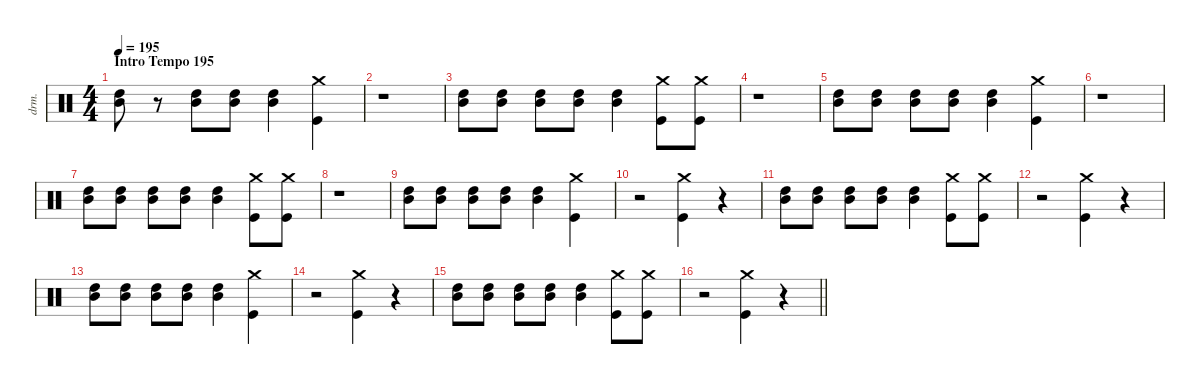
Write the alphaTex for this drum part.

\defaultSystemsLayout 4
\hideDynamics
\bracketExtendMode nobrackets
\otherSystemsTrackNameOrientation horizontal
\track ("Lars Ulrich (Drums)" "drm.") {instrument percussion}
\staff {score}
\articulation defaults
\ts (4 4)
\beaming (8 2 2 2 2)
\section ("" "Intro Tempo 195")
\tempo 195
\clef neutral
\ks c
("High Tom (hit)" "Mid Tom (hit)").8{dy f beam Down} r.8{beam Down} ("High Tom (hit)" "Mid Tom (hit)").8{beam Down} ("High Tom (hit)" "Mid Tom (hit)").8{beam Down} ("High Tom (hit)" "Mid Tom (hit)").4{beam Down} ("Crash medium (hit)" "Kick (hit)").4{beam Down} |
r.1{beam Down} |
("High Tom (hit)" "Mid Tom (hit)").8{beam Down} ("High Tom (hit)" "Mid Tom (hit)").8{beam Down} ("High Tom (hit)" "Mid Tom (hit)").8{beam Down} ("High Tom (hit)" "Mid Tom (hit)").8{beam Down} ("High Tom (hit)" "Mid Tom (hit)").4{beam Down} ("Crash medium (hit)" "Kick (hit)").8{beam Down} ("Kick (hit)" "Crash medium (hit)").8{beam Down} |
r.1{beam Down} |
("High Tom (hit)" "Mid Tom (hit)").8{beam Down} ("High Tom (hit)" "Mid Tom (hit)").8{beam Down} ("High Tom (hit)" "Mid Tom (hit)").8{beam Down} ("High Tom (hit)" "Mid Tom (hit)").8{beam Down} ("High Tom (hit)" "Mid Tom (hit)").4{beam Down} ("Crash medium (hit)" "Kick (hit)").4{beam Down} |
r.1{beam Down} |
("High Tom (hit)" "Mid Tom (hit)").8{beam Down} ("High Tom (hit)" "Mid Tom (hit)").8{beam Down} ("High Tom (hit)" "Mid Tom (hit)").8{beam Down} ("High Tom (hit)" "Mid Tom (hit)").8{beam Down} ("High Tom (hit)" "Mid Tom (hit)").4{beam Down} ("Crash medium (hit)" "Kick (hit)").8{beam Down} ("Kick (hit)" "Crash medium (hit)").8{beam Down} |
r.1{beam Down} |
("High Tom (hit)" "Mid Tom (hit)").8{beam Down} ("High Tom (hit)" "Mid Tom (hit)").8{beam Down} ("High Tom (hit)" "Mid Tom (hit)").8{beam Down} ("High Tom (hit)" "Mid Tom (hit)").8{beam Down} ("High Tom (hit)" "Mid Tom (hit)").4{beam Down} ("Crash medium (hit)" "Kick (hit)").4{beam Down} |
r.2{beam Down} ("Kick (hit)" "Crash medium (hit)").4{beam Down} r.4{beam Down} |
("High Tom (hit)" "Mid Tom (hit)").8{beam Down} ("High Tom (hit)" "Mid Tom (hit)").8{beam Down} ("High Tom (hit)" "Mid Tom (hit)").8{beam Down} ("High Tom (hit)" "Mid Tom (hit)").8{beam Down} ("High Tom (hit)" "Mid Tom (hit)").4{beam Down} ("Crash medium (hit)" "Kick (hit)").8{beam Down} ("Kick (hit)" "Crash medium (hit)").8{beam Down} |
r.2{beam Down} ("Kick (hit)" "Crash medium (hit)").4{beam Down} r.4{beam Down} |
("High Tom (hit)" "Mid Tom (hit)").8{beam Down} ("High Tom (hit)" "Mid Tom (hit)").8{beam Down} ("High Tom (hit)" "Mid Tom (hit)").8{beam Down} ("High Tom (hit)" "Mid Tom (hit)").8{beam Down} ("High Tom (hit)" "Mid Tom (hit)").4{beam Down} ("Crash medium (hit)" "Kick (hit)").4{beam Down} |
r.2{beam Down} ("Kick (hit)" "Crash medium (hit)").4{beam Down} r.4{beam Down} |
("High Tom (hit)" "Mid Tom (hit)").8{beam Down} ("High Tom (hit)" "Mid Tom (hit)").8{beam Down} ("High Tom (hit)" "Mid Tom (hit)").8{beam Down} ("High Tom (hit)" "Mid Tom (hit)").8{beam Down} ("High Tom (hit)" "Mid Tom (hit)").4{beam Down} ("Crash medium (hit)" "Kick (hit)").8{beam Down} ("Kick (hit)" "Crash medium (hit)").8{beam Down} |
\barLineRight lightlight
r.2{beam Down} ("Kick (hit)" "Crash medium (hit)").4{beam Down} r.4{beam Down}
